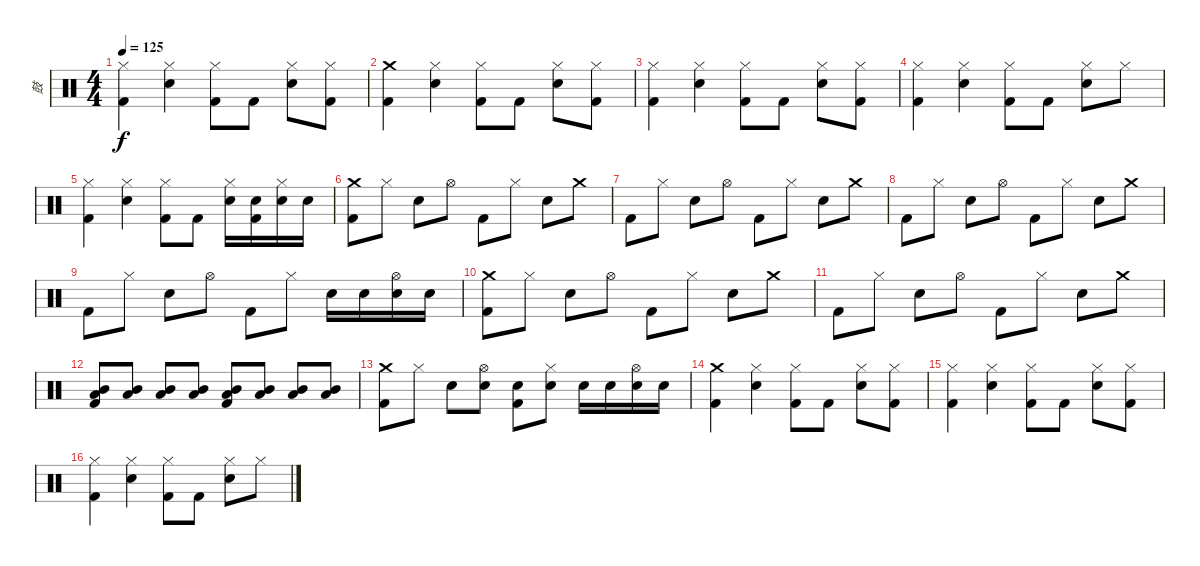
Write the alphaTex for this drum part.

\track ("鼓" "鼓") {instrument percussion}
\staff {score}
\articulation defaults
\ts (4 4)
\tempo 125
\clef neutral
\ks c
("Hi-Hat (closed)" "Kick (hit) 2").4{dy f} ("Hi-Hat (closed)" "Electric Snare (hit)").4 ("Hi-Hat (closed)" "Kick (hit) 2").8 "Kick (hit) 2".8 ("Hi-Hat (closed)" "Electric Snare (hit)").8 ("Hi-Hat (closed)" "Kick (hit) 2").8 |
("Crash medium (hit)" "Kick (hit) 2").4 ("Hi-Hat (closed)" "Electric Snare (hit)").4 ("Hi-Hat (closed)" "Kick (hit) 2").8 "Kick (hit) 2".8 ("Hi-Hat (closed)" "Electric Snare (hit)").8 ("Hi-Hat (closed)" "Kick (hit) 2").8 |
("Hi-Hat (closed)" "Kick (hit) 2").4 ("Hi-Hat (closed)" "Electric Snare (hit)").4 ("Hi-Hat (closed)" "Kick (hit) 2").8 "Kick (hit) 2".8 ("Hi-Hat (closed)" "Electric Snare (hit)").8 ("Hi-Hat (closed)" "Kick (hit) 2").8 |
("Hi-Hat (closed)" "Kick (hit) 2").4 ("Hi-Hat (closed)" "Electric Snare (hit)").4 ("Hi-Hat (closed)" "Kick (hit) 2").8 "Kick (hit) 2".8 ("Hi-Hat (closed)" "Electric Snare (hit)").8 "Hi-Hat (closed)".8 |
("Hi-Hat (closed)" "Kick (hit) 2").4 ("Hi-Hat (closed)" "Electric Snare (hit)").4 ("Hi-Hat (closed)" "Kick (hit) 2").8 "Kick (hit) 2".8 ("Hi-Hat (closed)" "Electric Snare (hit)").16 ("Electric Snare (hit)" "Kick (hit) 2").16 ("Hi-Hat (closed)" "Electric Snare (hit)").16 "Electric Snare (hit)".16 |
("Crash medium (hit)" "Kick (hit) 2").8 "Hi-Hat (closed)".8 "Electric Snare (hit)".8 "Hi-Hat (open)".8 "Kick (hit) 2".8 "Hi-Hat (closed)".8 "Electric Snare (hit)".8 "Crash medium (hit)".8 |
"Kick (hit) 2".8 "Hi-Hat (closed)".8 "Electric Snare (hit)".8 "Hi-Hat (open)".8 "Kick (hit) 2".8 "Hi-Hat (closed)".8 "Electric Snare (hit)".8 "Crash medium (hit)".8 |
"Kick (hit) 2".8 "Hi-Hat (closed)".8 "Electric Snare (hit)".8 "Hi-Hat (open)".8 "Kick (hit) 2".8 "Hi-Hat (closed)".8 "Electric Snare (hit)".8 "Crash medium (hit)".8 |
"Kick (hit) 2".8 "Hi-Hat (closed)".8 "Electric Snare (hit)".8 "Hi-Hat (open)".8 "Kick (hit) 2".8 "Hi-Hat (closed)".8 "Electric Snare (hit)".16 "Electric Snare (hit)".16 ("Hi-Hat (open)" "Electric Snare (hit)").16 "Electric Snare (hit)".16 |
("Crash medium (hit)" "Kick (hit) 2").8 "Hi-Hat (closed)".8 "Electric Snare (hit)".8 "Hi-Hat (open)".8 "Kick (hit) 2".8 "Hi-Hat (closed)".8 "Electric Snare (hit)".8 "Crash medium (hit)".8 |
"Kick (hit) 2".8 "Hi-Hat (closed)".8 "Electric Snare (hit)".8 "Hi-Hat (open)".8 "Kick (hit) 2".8 "Hi-Hat (closed)".8 "Electric Snare (hit)".8 "Crash medium (hit)".8 |
("Mid Tom (hit)" "Low Tom (hit)" "Kick (hit) 2").8 ("Mid Tom (hit)" "Low Tom (hit)").8 ("Mid Tom (hit)" "Low Tom (hit)").8 ("Mid Tom (hit)" "Low Tom (hit)").8 ("Mid Tom (hit)" "Low Tom (hit)" "Kick (hit) 2").8 ("Mid Tom (hit)" "Low Tom (hit)").8 ("Mid Tom (hit)" "Low Tom (hit)").8 ("Mid Tom (hit)" "Low Tom (hit)").8 |
("Crash medium (hit)" "Kick (hit) 2").8 "Hi-Hat (closed)".8 "Electric Snare (hit)".8 ("Hi-Hat (open)" "Electric Snare (hit)").8 ("Electric Snare (hit)" "Kick (hit) 2").8 ("Hi-Hat (closed)" "Electric Snare (hit)").8 "Electric Snare (hit)".16 "Electric Snare (hit)".16 ("Hi-Hat (open)" "Electric Snare (hit)").16 "Electric Snare (hit)".16 |
("Crash medium (hit)" "Kick (hit) 2").4 ("Hi-Hat (closed)" "Electric Snare (hit)").4 ("Hi-Hat (closed)" "Kick (hit) 2").8 "Kick (hit) 2".8 ("Hi-Hat (closed)" "Electric Snare (hit)").8 ("Hi-Hat (closed)" "Kick (hit) 2").8 |
("Hi-Hat (closed)" "Kick (hit) 2").4 ("Hi-Hat (closed)" "Electric Snare (hit)").4 ("Hi-Hat (closed)" "Kick (hit) 2").8 "Kick (hit) 2".8 ("Hi-Hat (closed)" "Electric Snare (hit)").8 ("Hi-Hat (closed)" "Kick (hit) 2").8 |
("Hi-Hat (closed)" "Kick (hit) 2").4 ("Hi-Hat (closed)" "Electric Snare (hit)").4 ("Hi-Hat (closed)" "Kick (hit) 2").8 "Kick (hit) 2".8 ("Hi-Hat (closed)" "Electric Snare (hit)").8 "Hi-Hat (closed)".8
